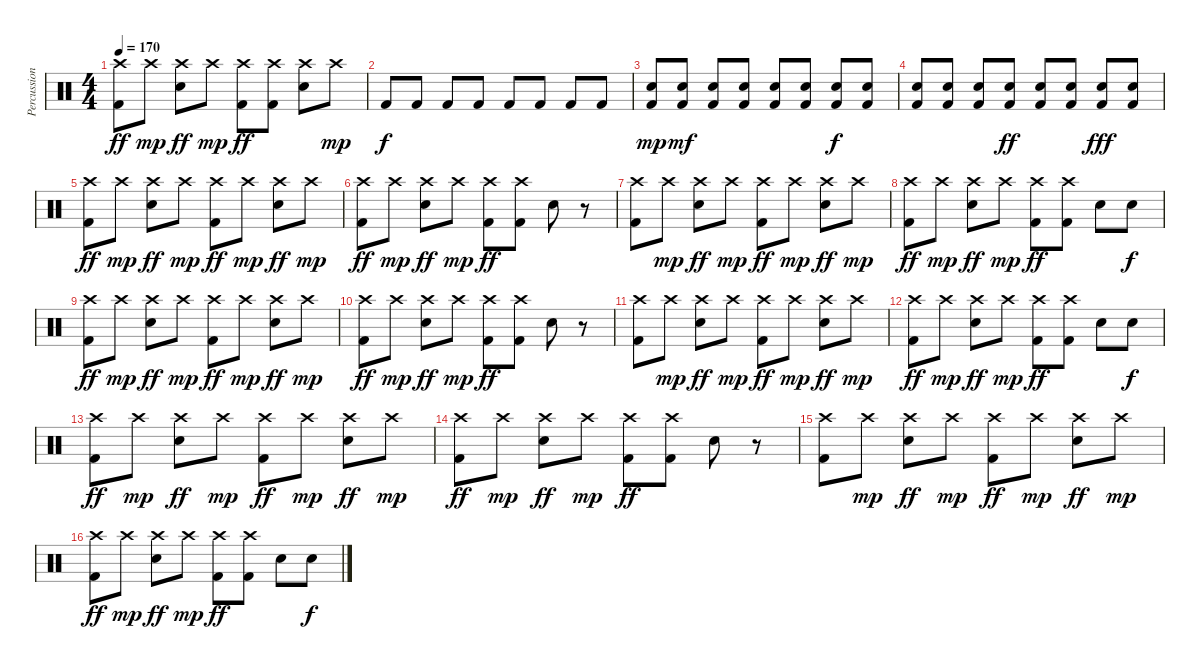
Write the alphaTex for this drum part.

\track ("Percussion" "Percussion") {instrument percussion}
\staff {score}
\articulation defaults
\ts (4 4)
\tempo 170
\clef neutral
\ks c
("Crash high (hit)" "Kick (hit) 2").8{dy ff} "Crash high (hit)".8{dy mp} ("Crash high (hit)" "Electric Snare (hit)").8{dy ff} "Crash high (hit)".8{dy mp} ("Crash high (hit)" "Kick (hit) 2").8{dy ff} ("Crash high (hit)" "Kick (hit) 2").8 ("Crash high (hit)" "Electric Snare (hit)").8 "Crash high (hit)".8{dy mp} |
"Kick (hit) 2".8{dy f} "Kick (hit) 2".8 "Kick (hit) 2".8 "Kick (hit) 2".8 "Kick (hit) 2".8 "Kick (hit) 2".8 "Kick (hit) 2".8 "Kick (hit) 2".8 |
("Electric Snare (hit)" "Kick (hit) 2").8{dy mp} ("Electric Snare (hit)" "Kick (hit) 2").8{dy mf} ("Electric Snare (hit)" "Kick (hit) 2").8 ("Electric Snare (hit)" "Kick (hit) 2").8 ("Electric Snare (hit)" "Kick (hit) 2").8 ("Electric Snare (hit)" "Kick (hit) 2").8 ("Electric Snare (hit)" "Kick (hit) 2").8{dy f} ("Electric Snare (hit)" "Kick (hit) 2").8 |
("Electric Snare (hit)" "Kick (hit) 2").8 ("Electric Snare (hit)" "Kick (hit) 2").8 ("Electric Snare (hit)" "Kick (hit) 2").8 ("Electric Snare (hit)" "Kick (hit) 2").8{dy ff} ("Electric Snare (hit)" "Kick (hit) 2").8 ("Electric Snare (hit)" "Kick (hit) 2").8 ("Electric Snare (hit)" "Kick (hit) 2").8{dy fff} ("Electric Snare (hit)" "Kick (hit) 2").8 |
("Crash high (hit)" "Kick (hit) 2").8{dy ff} "Crash high (hit)".8{dy mp} ("Crash high (hit)" "Electric Snare (hit)").8{dy ff} "Crash high (hit)".8{dy mp} ("Crash high (hit)" "Kick (hit) 2").8{dy ff} "Crash high (hit)".8{dy mp} ("Crash high (hit)" "Electric Snare (hit)").8{dy ff} "Crash high (hit)".8{dy mp} |
("Crash high (hit)" "Kick (hit) 2").8{dy ff} "Crash high (hit)".8{dy mp} ("Crash high (hit)" "Electric Snare (hit)").8{dy ff} "Crash high (hit)".8{dy mp} ("Crash high (hit)" "Kick (hit) 2").8{dy ff} ("Crash high (hit)" "Kick (hit) 2").8 "Electric Snare (hit)".8 r.8 |
("Crash high (hit)" "Kick (hit) 2").8 "Crash high (hit)".8{dy mp} ("Crash high (hit)" "Electric Snare (hit)").8{dy ff} "Crash high (hit)".8{dy mp} ("Crash high (hit)" "Kick (hit) 2").8{dy ff} "Crash high (hit)".8{dy mp} ("Crash high (hit)" "Electric Snare (hit)").8{dy ff} "Crash high (hit)".8{dy mp} |
("Crash high (hit)" "Kick (hit) 2").8{dy ff} "Crash high (hit)".8{dy mp} ("Crash high (hit)" "Electric Snare (hit)").8{dy ff} "Crash high (hit)".8{dy mp} ("Crash high (hit)" "Kick (hit) 2").8{dy ff} ("Crash high (hit)" "Kick (hit) 2").8 "Electric Snare (hit)".8 "Electric Snare (hit)".8{dy f} |
("Crash high (hit)" "Kick (hit) 2").8{dy ff} "Crash high (hit)".8{dy mp} ("Crash high (hit)" "Electric Snare (hit)").8{dy ff} "Crash high (hit)".8{dy mp} ("Crash high (hit)" "Kick (hit) 2").8{dy ff} "Crash high (hit)".8{dy mp} ("Crash high (hit)" "Electric Snare (hit)").8{dy ff} "Crash high (hit)".8{dy mp} |
("Crash high (hit)" "Kick (hit) 2").8{dy ff} "Crash high (hit)".8{dy mp} ("Crash high (hit)" "Electric Snare (hit)").8{dy ff} "Crash high (hit)".8{dy mp} ("Crash high (hit)" "Kick (hit) 2").8{dy ff} ("Crash high (hit)" "Kick (hit) 2").8 "Electric Snare (hit)".8 r.8 |
("Crash high (hit)" "Kick (hit) 2").8 "Crash high (hit)".8{dy mp} ("Crash high (hit)" "Electric Snare (hit)").8{dy ff} "Crash high (hit)".8{dy mp} ("Crash high (hit)" "Kick (hit) 2").8{dy ff} "Crash high (hit)".8{dy mp} ("Crash high (hit)" "Electric Snare (hit)").8{dy ff} "Crash high (hit)".8{dy mp} |
("Crash high (hit)" "Kick (hit) 2").8{dy ff} "Crash high (hit)".8{dy mp} ("Crash high (hit)" "Electric Snare (hit)").8{dy ff} "Crash high (hit)".8{dy mp} ("Crash high (hit)" "Kick (hit) 2").8{dy ff} ("Crash high (hit)" "Kick (hit) 2").8 "Electric Snare (hit)".8 "Electric Snare (hit)".8{dy f} |
("Crash high (hit)" "Kick (hit) 2").8{dy ff} "Crash high (hit)".8{dy mp} ("Crash high (hit)" "Electric Snare (hit)").8{dy ff} "Crash high (hit)".8{dy mp} ("Crash high (hit)" "Kick (hit) 2").8{dy ff} "Crash high (hit)".8{dy mp} ("Crash high (hit)" "Electric Snare (hit)").8{dy ff} "Crash high (hit)".8{dy mp} |
("Crash high (hit)" "Kick (hit) 2").8{dy ff} "Crash high (hit)".8{dy mp} ("Crash high (hit)" "Electric Snare (hit)").8{dy ff} "Crash high (hit)".8{dy mp} ("Crash high (hit)" "Kick (hit) 2").8{dy ff} ("Crash high (hit)" "Kick (hit) 2").8 "Electric Snare (hit)".8 r.8 |
("Crash high (hit)" "Kick (hit) 2").8 "Crash high (hit)".8{dy mp} ("Crash high (hit)" "Electric Snare (hit)").8{dy ff} "Crash high (hit)".8{dy mp} ("Crash high (hit)" "Kick (hit) 2").8{dy ff} "Crash high (hit)".8{dy mp} ("Crash high (hit)" "Electric Snare (hit)").8{dy ff} "Crash high (hit)".8{dy mp} |
("Crash high (hit)" "Kick (hit) 2").8{dy ff} "Crash high (hit)".8{dy mp} ("Crash high (hit)" "Electric Snare (hit)").8{dy ff} "Crash high (hit)".8{dy mp} ("Crash high (hit)" "Kick (hit) 2").8{dy ff} ("Crash high (hit)" "Kick (hit) 2").8 "Electric Snare (hit)".8 "Electric Snare (hit)".8{dy f}
